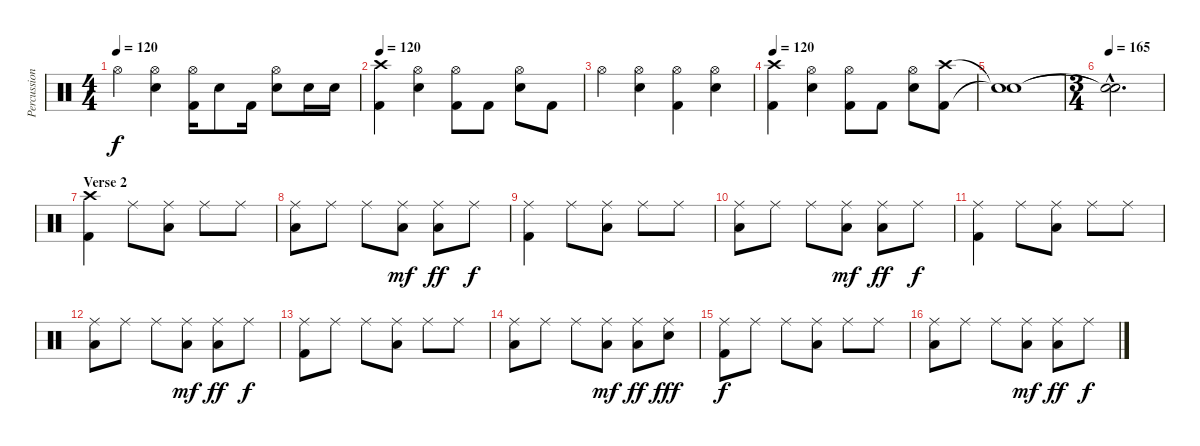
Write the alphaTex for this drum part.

\track ("Percussion" "Percussion") {instrument percussion}
\staff {score}
\articulation defaults
\ts (4 4)
\tempo 120
\clef neutral
\ks c "Hi-Hat (open)".4{dy f}
("Hi-Hat (open)" "Electric Snare (hit)").4 ("Hi-Hat (open)" "Kick (hit) 2").16 "Electric Snare (hit)".8 "Kick (hit) 2".16 ("Hi-Hat (open)" "Electric Snare (hit)").8 "Electric Snare (hit)".16 "Electric Snare (hit)".16 |
\tempo 120
("Crash high (hit)" "Kick (hit) 2").4 ("Hi-Hat (open)" "Electric Snare (hit)").4 ("Hi-Hat (open)" "Kick (hit) 2").8 "Kick (hit) 2".8 ("Hi-Hat (open)" "Electric Snare (hit)").8 "Kick (hit) 2".8 |
"Hi-Hat (open)".4 ("Hi-Hat (open)" "Electric Snare (hit)").4 ("Hi-Hat (open)" "Kick (hit) 2").4 ("Hi-Hat (open)" "Electric Snare (hit)").4 |
\tempo 120
("Crash high (hit)" "Kick (hit) 2").4 ("Hi-Hat (open)" "Electric Snare (hit)").4 ("Hi-Hat (open)" "Kick (hit) 2").8 "Kick (hit) 2".8 ("Hi-Hat (open)" "Electric Snare (hit)").8 ("Crash high (hit)" "Kick (hit) 2").8 |
("Snare (hit)"{t} "Snare (hit)"{t}).1 |
\ts (3 4)
\tempo 165
("Snare (hit)"{hac t} "Snare (hit)"{hac t}).2{d} |
\section ("" "Verse 2")
("Crash high (hit)" "Kick (hit) 2").4 "Ride (middle)".8 ("Ride (middle)" "Low Tom (hit)").8 "Ride (middle)".8 "Ride (middle)".8 |
("Ride (middle)" "Low Tom (hit)").8 "Ride (middle)".8 "Ride (middle)".8 ("Ride (middle)" "Low Tom (hit)").8{dy mf} ("Ride (middle)" "Low Tom (hit)").8{dy ff} "Ride (middle)".8{dy f} |
("Ride (middle)" "Kick (hit) 2").4 "Ride (middle)".8 ("Ride (middle)" "Low Tom (hit)").8 "Ride (middle)".8 "Ride (middle)".8 |
("Ride (middle)" "Low Tom (hit)").8 "Ride (middle)".8 "Ride (middle)".8 ("Ride (middle)" "Low Tom (hit)").8{dy mf} ("Ride (middle)" "Low Tom (hit)").8{dy ff} "Ride (middle)".8{dy f} |
("Ride (middle)" "Kick (hit) 2").4 "Ride (middle)".8 ("Ride (middle)" "Low Tom (hit)").8 "Ride (middle)".8 "Ride (middle)".8 |
("Ride (middle)" "Low Tom (hit)").8 "Ride (middle)".8 "Ride (middle)".8 ("Ride (middle)" "Low Tom (hit)").8{dy mf} ("Ride (middle)" "Low Tom (hit)").8{dy ff} "Ride (middle)".8{dy f} |
("Ride (middle)" "Kick (hit) 2").8 "Ride (middle)".8 "Ride (middle)".8 ("Ride (middle)" "Low Tom (hit)").8 "Ride (middle)".8 "Ride (middle)".8 |
("Ride (middle)" "Low Tom (hit)").8 "Ride (middle)".8 "Ride (middle)".8 ("Ride (middle)" "Low Tom (hit)").8{dy mf} ("Ride (middle)" "Low Tom (hit)").8{dy ff} ("Ride (middle)" "Electric Snare (hit)").8{dy fff} |
("Ride (middle)" "Kick (hit) 2").8{dy f} "Ride (middle)".8 "Ride (middle)".8 ("Ride (middle)" "Low Tom (hit)").8 "Ride (middle)".8 "Ride (middle)".8 |
("Ride (middle)" "Low Tom (hit)").8 "Ride (middle)".8 "Ride (middle)".8 ("Ride (middle)" "Low Tom (hit)").8{dy mf} ("Ride (middle)" "Low Tom (hit)").8{dy ff} "Ride (middle)".8{dy f}
